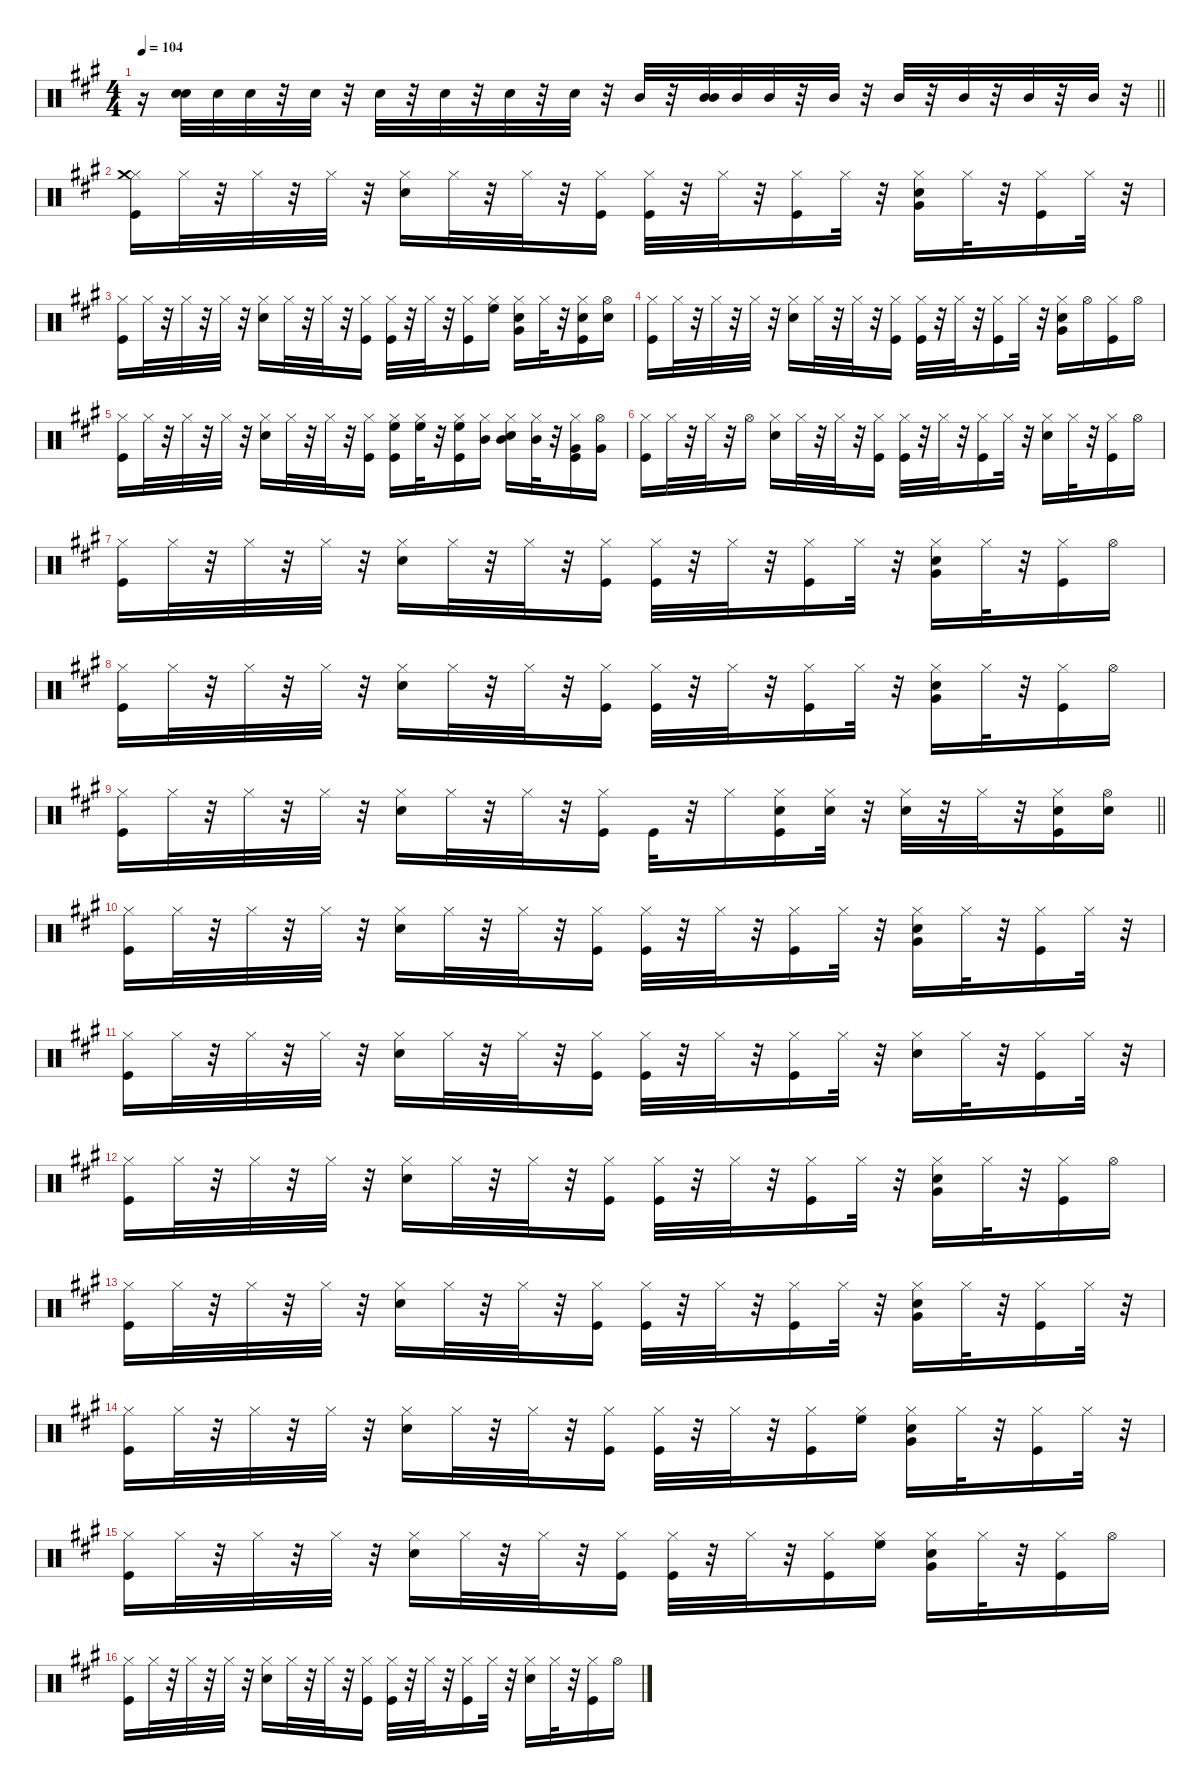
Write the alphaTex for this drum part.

\defaultSystemsLayout 4
\hideDynamics
\bracketExtendMode nobrackets
\singleTrackTrackNamePolicy hidden
\multiTrackTrackNamePolicy hidden
\otherSystemsTrackNameOrientation horizontal
\track ("Drums   " "drm.") {instrument percussion}
\staff {score}
\articulation defaults
\ts (4 4)
\tempo 104
\clef neutral
\barLineRight lightlight
\ks a
r.16{dy f beam Down} ("Snare (hit) 2"{acc forcenatural} "Snare (hit) 2"{acc forcenatural}).32{beam Down} "Snare (hit) 2"{acc forcenatural}.32{beam Down} "Snare (hit) 2"{acc forcenatural}.32{dy ff beam Down} r.32{beam Down} "Snare (hit) 2"{acc forcenatural}.32{dy f beam Down} r.32{beam Down} "Snare (hit) 2"{acc forcenatural}.32{dy mf beam Down} r.32{beam Down} "Snare (hit) 2"{acc forcenatural}.32{dy f beam Down} r.32{beam Down} "Snare (hit) 2"{acc forcenatural}.32{dy ff beam Down} r.32{beam Down} "Snare (hit) 2"{acc forcenatural}.32{beam Down} r.32{beam Down} "Mid Tom (hit)"{acc forcenatural}.32{dy mp beam Up} r.32{beam Up} ("Mid Tom (hit)"{acc forcenatural} "Mid Tom (hit)"{acc forcenatural}).32{dy f beam Up} "Mid Tom (hit)"{acc forcenatural}.32{beam Up} "Mid Tom (hit)"{acc forcenatural}.32{dy ff beam Up} r.32{beam Up} "Mid Tom (hit)"{acc forcenatural}.32{dy f beam Up} r.32{beam Up} "Mid Tom (hit)"{acc forcenatural}.32{dy mf beam Up} r.32{beam Up} "Mid Tom (hit)"{acc forcenatural}.32{dy f beam Up} r.32{beam Up} "Mid Tom (hit)"{acc forcenatural}.32{dy ff beam Up} r.32{beam Up} "Mid Tom (hit)"{acc forcenatural}.32{beam Up} r.32{beam Up} |
("Kick (hit)"{acc forcenatural} "Hi-Hat (closed)"{acc forcenatural} "Crash medium (hit)"{acc forcenatural}).16{dy f beam Down} "Hi-Hat (closed)"{acc forcenatural}.32{dy mp beam Down} r.32{beam Down} "Hi-Hat (closed)"{acc forcenatural}.32{dy f beam Down} r.32{beam Down} "Hi-Hat (closed)"{acc forcenatural}.32{beam Down} r.32{beam Down} ("Snare (hit) 2"{acc forcenatural} "Hi-Hat (closed)"{acc forcenatural}).16{dy fff beam Down} "Hi-Hat (closed)"{acc forcenatural}.32{dy mp beam Down} r.32{beam Down} "Hi-Hat (closed)"{acc forcenatural}.32{dy f beam Down} r.32{beam Down} ("Kick (hit)"{acc forcenatural} "Hi-Hat (closed)"{acc forcenatural}).16{dy mf beam Down} ("Kick (hit)"{acc forcenatural} "Hi-Hat (closed)"{acc forcenatural}).32{dy f beam Down} r.32{beam Down} "Hi-Hat (closed)"{acc forcenatural}.32{dy mp beam Down} r.32{beam Down} ("Kick (hit)"{acc forcenatural} "Hi-Hat (closed)"{acc forcenatural}).16{dy f beam Down} "Hi-Hat (closed)"{acc forcenatural}.32{beam Down} r.32{beam Down} ("Snare (hit) 2"{acc forcenatural} "Hi-Hat (closed)"{acc forcenatural} "Very Low Tom (hit)"{acc forcenatural}).16{dy fff beam Down} "Hi-Hat (closed)"{acc forcenatural}.32{dy mp beam Down} r.32{beam Down} ("Kick (hit)"{acc forcenatural} "Hi-Hat (closed)"{acc forcenatural}).16{dy f beam Down} "Hi-Hat (closed)"{acc forcenatural}.32{beam Down} r.32{beam Down} |
("Kick (hit)"{acc forcenatural} "Hi-Hat (closed)"{acc forcenatural}).16{beam Down} "Hi-Hat (closed)"{acc forcenatural}.32{dy mp beam Down} r.32{beam Down} "Hi-Hat (closed)"{acc forcenatural}.32{dy f beam Down} r.32{beam Down} "Hi-Hat (closed)"{acc forcenatural}.32{beam Down} r.32{beam Down} ("Snare (hit) 2"{acc forcenatural} "Hi-Hat (closed)"{acc forcenatural}).16{dy fff beam Down} "Hi-Hat (closed)"{acc forcenatural}.32{dy mp beam Down} r.32{beam Down} "Hi-Hat (closed)"{acc forcenatural}.32{dy f beam Down} r.32{beam Down} ("Kick (hit)"{acc forcenatural} "Hi-Hat (closed)"{acc forcenatural}).16{dy mf beam Down} ("Kick (hit)"{acc forcenatural} "Hi-Hat (closed)"{acc forcenatural}).32{dy f beam Down} r.32{beam Down} "Hi-Hat (closed)"{acc forcenatural}.32{dy mp beam Down} r.32{beam Down} ("Kick (hit)"{acc forcenatural} "Hi-Hat (closed)"{acc forcenatural}).16{dy f beam Down} ("Hi-Hat (closed)"{acc forcenatural} "High Floor Tom (hit)"{acc forcenatural}).16{beam Down} ("Snare (hit) 2"{acc forcenatural} "Hi-Hat (closed)"{acc forcenatural} "Very Low Tom (hit)"{acc forcenatural}).16{dy fff beam Down} "Hi-Hat (closed)"{acc forcenatural}.32{dy mp beam Down} r.32{beam Down} ("Kick (hit)"{acc forcenatural} "Snare (hit) 2"{acc forcenatural} "Hi-Hat (closed)"{acc forcenatural}).16{dy f beam Down} ("Snare (hit) 2"{acc forcenatural} "Hi-Hat (open)"{acc forcenatural}).16{beam Down} |
("Kick (hit)"{acc forcenatural} "Hi-Hat (closed)"{acc forcenatural}).16{beam Down} "Hi-Hat (closed)"{acc forcenatural}.32{dy mp beam Down} r.32{beam Down} "Hi-Hat (closed)"{acc forcenatural}.32{dy f beam Down} r.32{beam Down} "Hi-Hat (closed)"{acc forcenatural}.32{beam Down} r.32{beam Down} ("Snare (hit) 2"{acc forcenatural} "Hi-Hat (closed)"{acc forcenatural}).16{dy fff beam Down} "Hi-Hat (closed)"{acc forcenatural}.32{dy mp beam Down} r.32{beam Down} "Hi-Hat (closed)"{acc forcenatural}.32{dy f beam Down} r.32{beam Down} ("Kick (hit)"{acc forcenatural} "Hi-Hat (closed)"{acc forcenatural}).16{dy mf beam Down} ("Kick (hit)"{acc forcenatural} "Hi-Hat (closed)"{acc forcenatural}).32{dy f beam Down} r.32{beam Down} "Hi-Hat (closed)"{acc forcenatural}.32{dy mp beam Down} r.32{beam Down} ("Kick (hit)"{acc forcenatural} "Hi-Hat (closed)"{acc forcenatural}).16{dy f beam Down} "Hi-Hat (closed)"{acc forcenatural}.32{beam Down} r.32{beam Down} ("Snare (hit) 2"{acc forcenatural} "Hi-Hat (closed)"{acc forcenatural} "Very Low Tom (hit)"{acc forcenatural}).16{dy fff beam Down} "Hi-Hat (open)"{acc forcenatural}.16{dy mp beam Down} ("Kick (hit)"{acc forcenatural} "Hi-Hat (closed)"{acc forcenatural}).16{dy f beam Down} "Hi-Hat (open)"{acc forcenatural}.16{beam Down} |
("Kick (hit)"{acc forcenatural} "Hi-Hat (closed)"{acc forcenatural}).16{beam Down} "Hi-Hat (closed)"{acc forcenatural}.32{dy mp beam Down} r.32{beam Down} "Hi-Hat (closed)"{acc forcenatural}.32{dy f beam Down} r.32{beam Down} "Hi-Hat (closed)"{acc forcenatural}.32{beam Down} r.32{beam Down} ("Snare (hit) 2"{acc forcenatural} "Hi-Hat (closed)"{acc forcenatural}).16{dy fff beam Down} "Hi-Hat (closed)"{acc forcenatural}.32{dy mp beam Down} r.32{beam Down} "Hi-Hat (closed)"{acc forcenatural}.32{dy f beam Down} r.32{beam Down} ("Kick (hit)"{acc forcenatural} "Hi-Hat (closed)"{acc forcenatural}).16{dy mf beam Down} ("Kick (hit)"{acc forcenatural} "Hi-Hat (closed)"{acc forcenatural} "High Floor Tom (hit)"{acc forcenatural}).16{dy f beam Down} ("Hi-Hat (closed)"{acc forcenatural} "High Floor Tom (hit)"{acc forcenatural}).32{dy mp beam Down} r.32{beam Down} ("Kick (hit)"{acc forcenatural} "Hi-Hat (closed)"{acc forcenatural} "High Floor Tom (hit)"{acc forcenatural}).16{dy f beam Down} ("Hi-Hat (closed)"{acc forcenatural} "Mid Tom (hit)"{acc forcenatural}).16{beam Down} ("Snare (hit) 2"{acc forcenatural} "Hi-Hat (closed)"{acc forcenatural} "Mid Tom (hit)"{acc forcenatural}).16{dy fff beam Down} ("Hi-Hat (closed)"{acc forcenatural} "Mid Tom (hit)"{acc forcenatural}).32{dy mp beam Down} r.32{beam Down} ("Kick (hit)"{acc forcenatural} "Hi-Hat (closed)"{acc forcenatural} "Very Low Tom (hit)"{acc forcenatural}).16{dy f beam Down} ("Very Low Tom (hit)"{acc forcenatural} "Hi-Hat (open)"{acc forcenatural}).16{beam Down} |
("Kick (hit)"{acc forcenatural} "Hi-Hat (closed)"{acc forcenatural}).16{beam Down} "Hi-Hat (closed)"{acc forcenatural}.32{dy mp beam Down} r.32{beam Down} "Hi-Hat (closed)"{acc forcenatural}.32{dy f beam Down} r.32{beam Down} "Hi-Hat (open)"{acc forcenatural}.16{beam Down} ("Snare (hit) 2"{acc forcenatural} "Hi-Hat (closed)"{acc forcenatural}).16{dy fff beam Down} "Hi-Hat (closed)"{acc forcenatural}.32{dy mp beam Down} r.32{beam Down} "Hi-Hat (closed)"{acc forcenatural}.32{dy f beam Down} r.32{beam Down} ("Kick (hit)"{acc forcenatural} "Hi-Hat (closed)"{acc forcenatural}).16{dy mf beam Down} ("Kick (hit)"{acc forcenatural} "Hi-Hat (closed)"{acc forcenatural}).32{dy f beam Down} r.32{beam Down} "Hi-Hat (closed)"{acc forcenatural}.32{dy mp beam Down} r.32{beam Down} ("Kick (hit)"{acc forcenatural} "Hi-Hat (closed)"{acc forcenatural}).16{dy f beam Down} "Hi-Hat (closed)"{acc forcenatural}.32{beam Down} r.32{beam Down} ("Snare (hit) 2"{acc forcenatural} "Hi-Hat (closed)"{acc forcenatural}).16{dy fff beam Down} "Hi-Hat (closed)"{acc forcenatural}.32{dy mp beam Down} r.32{beam Down} ("Kick (hit)"{acc forcenatural} "Hi-Hat (closed)"{acc forcenatural}).16{dy f beam Down} "Hi-Hat (open)"{acc forcenatural}.16{beam Down} |
("Kick (hit)"{acc forcenatural} "Hi-Hat (closed)"{acc forcenatural}).16{beam Down} "Hi-Hat (closed)"{acc forcenatural}.32{dy mp beam Down} r.32{beam Down} "Hi-Hat (closed)"{acc forcenatural}.32{dy f beam Down} r.32{beam Down} "Hi-Hat (closed)"{acc forcenatural}.32{beam Down} r.32{beam Down} ("Snare (hit) 2"{acc forcenatural} "Hi-Hat (closed)"{acc forcenatural}).16{dy fff beam Down} "Hi-Hat (closed)"{acc forcenatural}.32{dy mp beam Down} r.32{beam Down} "Hi-Hat (closed)"{acc forcenatural}.32{dy f beam Down} r.32{beam Down} ("Kick (hit)"{acc forcenatural} "Hi-Hat (closed)"{acc forcenatural}).16{dy mf beam Down} ("Kick (hit)"{acc forcenatural} "Hi-Hat (closed)"{acc forcenatural}).32{dy f beam Down} r.32{beam Down} "Hi-Hat (closed)"{acc forcenatural}.32{dy mp beam Down} r.32{beam Down} ("Kick (hit)"{acc forcenatural} "Hi-Hat (closed)"{acc forcenatural}).16{dy f beam Down} "Hi-Hat (closed)"{acc forcenatural}.32{beam Down} r.32{beam Down} ("Snare (hit) 2"{acc forcenatural} "Hi-Hat (closed)"{acc forcenatural} "Very Low Tom (hit)"{acc forcenatural}).16{dy fff beam Down} "Hi-Hat (closed)"{acc forcenatural}.32{dy mp beam Down} r.32{beam Down} ("Kick (hit)"{acc forcenatural} "Hi-Hat (closed)"{acc forcenatural}).16{dy f beam Down} "Hi-Hat (open)"{acc forcenatural}.16{beam Down} |
("Kick (hit)"{acc forcenatural} "Hi-Hat (closed)"{acc forcenatural}).16{beam Down} "Hi-Hat (closed)"{acc forcenatural}.32{dy mp beam Down} r.32{beam Down} "Hi-Hat (closed)"{acc forcenatural}.32{dy f beam Down} r.32{beam Down} "Hi-Hat (closed)"{acc forcenatural}.32{beam Down} r.32{beam Down} ("Snare (hit) 2"{acc forcenatural} "Hi-Hat (closed)"{acc forcenatural}).16{dy fff beam Down} "Hi-Hat (closed)"{acc forcenatural}.32{dy mp beam Down} r.32{beam Down} "Hi-Hat (closed)"{acc forcenatural}.32{dy f beam Down} r.32{beam Down} ("Kick (hit)"{acc forcenatural} "Hi-Hat (closed)"{acc forcenatural}).16{dy mf beam Down} ("Kick (hit)"{acc forcenatural} "Hi-Hat (closed)"{acc forcenatural}).32{dy f beam Down} r.32{beam Down} "Hi-Hat (closed)"{acc forcenatural}.32{dy mp beam Down} r.32{beam Down} ("Kick (hit)"{acc forcenatural} "Hi-Hat (closed)"{acc forcenatural}).16{dy f beam Down} "Hi-Hat (closed)"{acc forcenatural}.32{beam Down} r.32{beam Down} ("Snare (hit) 2"{acc forcenatural} "Hi-Hat (closed)"{acc forcenatural} "Very Low Tom (hit)"{acc forcenatural}).16{dy fff beam Down} "Hi-Hat (closed)"{acc forcenatural}.32{dy mp beam Down} r.32{beam Down} ("Kick (hit)"{acc forcenatural} "Hi-Hat (closed)"{acc forcenatural}).16{dy f beam Down} "Hi-Hat (open)"{acc forcenatural}.16{beam Down} |
\barLineRight lightlight
("Kick (hit)"{acc forcenatural} "Hi-Hat (closed)"{acc forcenatural}).16{beam Down} "Hi-Hat (closed)"{acc forcenatural}.32{dy mp beam Down} r.32{beam Down} "Hi-Hat (closed)"{acc forcenatural}.32{dy f beam Down} r.32{beam Down} "Hi-Hat (closed)"{acc forcenatural}.32{beam Down} r.32{beam Down} ("Snare (hit) 2"{acc forcenatural} "Hi-Hat (closed)"{acc forcenatural}).16{dy fff beam Down} "Hi-Hat (closed)"{acc forcenatural}.32{dy mp beam Down} r.32{beam Down} "Hi-Hat (closed)"{acc forcenatural}.32{dy f beam Down} r.32{beam Down} ("Kick (hit)"{acc forcenatural} "Hi-Hat (closed)"{acc forcenatural}).16{dy mf beam Down} "Kick (hit)"{acc forcenatural}.32{dy f beam Down} r.32{beam Down} "Hi-Hat (closed)"{acc forcenatural}.16{dy mp beam Down} ("Kick (hit)"{acc forcenatural} "Snare (hit) 2"{acc forcenatural} "Hi-Hat (closed)"{acc forcenatural}).16{dy f beam Down} ("Snare (hit) 2"{acc forcenatural} "Hi-Hat (closed)"{acc forcenatural}).32{beam Down} r.32{beam Down} ("Snare (hit) 2"{acc forcenatural} "Hi-Hat (closed)"{acc forcenatural}).32{dy fff beam Down} r.32{beam Down} "Hi-Hat (closed)"{acc forcenatural}.32{dy mp beam Down} r.32{beam Down} ("Kick (hit)"{acc forcenatural} "Snare (hit) 2"{acc forcenatural} "Hi-Hat (closed)"{acc forcenatural}).16{dy f beam Down} ("Snare (hit) 2"{acc forcenatural} "Hi-Hat (open)"{acc forcenatural}).16{dy ff beam Down} |
("Kick (hit)"{acc forcenatural} "Hi-Hat (closed)"{acc forcenatural}).16{dy f beam Down} "Hi-Hat (closed)"{acc forcenatural}.32{dy mp beam Down} r.32{beam Down} "Hi-Hat (closed)"{acc forcenatural}.32{dy f beam Down} r.32{beam Down} "Hi-Hat (closed)"{acc forcenatural}.32{beam Down} r.32{beam Down} ("Snare (hit) 2"{acc forcenatural} "Hi-Hat (closed)"{acc forcenatural}).16{dy fff beam Down} "Hi-Hat (closed)"{acc forcenatural}.32{dy mp beam Down} r.32{beam Down} "Hi-Hat (closed)"{acc forcenatural}.32{dy f beam Down} r.32{beam Down} ("Kick (hit)"{acc forcenatural} "Hi-Hat (closed)"{acc forcenatural}).16{dy mf beam Down} ("Kick (hit)"{acc forcenatural} "Hi-Hat (closed)"{acc forcenatural}).32{dy f beam Down} r.32{beam Down} "Hi-Hat (closed)"{acc forcenatural}.32{dy mp beam Down} r.32{beam Down} ("Kick (hit)"{acc forcenatural} "Hi-Hat (closed)"{acc forcenatural}).16{dy f beam Down} "Hi-Hat (closed)"{acc forcenatural}.32{beam Down} r.32{beam Down} ("Snare (hit) 2"{acc forcenatural} "Hi-Hat (closed)"{acc forcenatural} "Very Low Tom (hit)"{acc forcenatural}).16{dy fff beam Down} "Hi-Hat (closed)"{acc forcenatural}.32{dy mp beam Down} r.32{beam Down} ("Kick (hit)"{acc forcenatural} "Hi-Hat (closed)"{acc forcenatural}).16{dy f beam Down} "Hi-Hat (closed)"{acc forcenatural}.32{beam Down} r.32{beam Down} |
("Kick (hit)"{acc forcenatural} "Hi-Hat (closed)"{acc forcenatural}).16{beam Down} "Hi-Hat (closed)"{acc forcenatural}.32{dy mp beam Down} r.32{beam Down} "Hi-Hat (closed)"{acc forcenatural}.32{dy f beam Down} r.32{beam Down} "Hi-Hat (closed)"{acc forcenatural}.32{beam Down} r.32{beam Down} ("Snare (hit) 2"{acc forcenatural} "Hi-Hat (closed)"{acc forcenatural}).16{dy fff beam Down} "Hi-Hat (closed)"{acc forcenatural}.32{dy mp beam Down} r.32{beam Down} "Hi-Hat (closed)"{acc forcenatural}.32{dy f beam Down} r.32{beam Down} ("Kick (hit)"{acc forcenatural} "Hi-Hat (closed)"{acc forcenatural}).16{dy mf beam Down} ("Kick (hit)"{acc forcenatural} "Hi-Hat (closed)"{acc forcenatural}).32{dy f beam Down} r.32{beam Down} "Hi-Hat (closed)"{acc forcenatural}.32{dy mp beam Down} r.32{beam Down} ("Kick (hit)"{acc forcenatural} "Hi-Hat (closed)"{acc forcenatural}).16{dy f beam Down} "Hi-Hat (closed)"{acc forcenatural}.32{beam Down} r.32{beam Down} ("Snare (hit) 2"{acc forcenatural} "Hi-Hat (closed)"{acc forcenatural}).16{dy fff beam Down} "Hi-Hat (closed)"{acc forcenatural}.32{dy mp beam Down} r.32{beam Down} ("Kick (hit)"{acc forcenatural} "Hi-Hat (closed)"{acc forcenatural}).16{dy f beam Down} "Hi-Hat (closed)"{acc forcenatural}.32{beam Down} r.32{beam Down} |
("Kick (hit)"{acc forcenatural} "Hi-Hat (closed)"{acc forcenatural}).16{beam Down} "Hi-Hat (closed)"{acc forcenatural}.32{dy mp beam Down} r.32{beam Down} "Hi-Hat (closed)"{acc forcenatural}.32{dy f beam Down} r.32{beam Down} "Hi-Hat (closed)"{acc forcenatural}.32{beam Down} r.32{beam Down} ("Snare (hit) 2"{acc forcenatural} "Hi-Hat (closed)"{acc forcenatural}).16{dy fff beam Down} "Hi-Hat (closed)"{acc forcenatural}.32{dy mp beam Down} r.32{beam Down} "Hi-Hat (closed)"{acc forcenatural}.32{dy f beam Down} r.32{beam Down} ("Kick (hit)"{acc forcenatural} "Hi-Hat (closed)"{acc forcenatural}).16{dy mf beam Down} ("Kick (hit)"{acc forcenatural} "Hi-Hat (closed)"{acc forcenatural}).32{dy f beam Down} r.32{beam Down} "Hi-Hat (closed)"{acc forcenatural}.32{dy mp beam Down} r.32{beam Down} ("Kick (hit)"{acc forcenatural} "Hi-Hat (closed)"{acc forcenatural}).16{dy f beam Down} "Hi-Hat (closed)"{acc forcenatural}.32{beam Down} r.32{beam Down} ("Snare (hit) 2"{acc forcenatural} "Hi-Hat (closed)"{acc forcenatural} "Very Low Tom (hit)"{acc forcenatural}).16{dy fff beam Down} "Hi-Hat (closed)"{acc forcenatural}.32{dy mp beam Down} r.32{beam Down} ("Kick (hit)"{acc forcenatural} "Hi-Hat (closed)"{acc forcenatural}).16{dy f beam Down} "Hi-Hat (open)"{acc forcenatural}.16{beam Down} |
("Kick (hit)"{acc forcenatural} "Hi-Hat (closed)"{acc forcenatural}).16{beam Down} "Hi-Hat (closed)"{acc forcenatural}.32{dy mp beam Down} r.32{beam Down} "Hi-Hat (closed)"{acc forcenatural}.32{dy f beam Down} r.32{beam Down} "Hi-Hat (closed)"{acc forcenatural}.32{beam Down} r.32{beam Down} ("Snare (hit) 2"{acc forcenatural} "Hi-Hat (closed)"{acc forcenatural}).16{dy fff beam Down} "Hi-Hat (closed)"{acc forcenatural}.32{dy mp beam Down} r.32{beam Down} "Hi-Hat (closed)"{acc forcenatural}.32{dy f beam Down} r.32{beam Down} ("Kick (hit)"{acc forcenatural} "Hi-Hat (closed)"{acc forcenatural}).16{dy mf beam Down} ("Kick (hit)"{acc forcenatural} "Hi-Hat (closed)"{acc forcenatural}).32{dy f beam Down} r.32{beam Down} "Hi-Hat (closed)"{acc forcenatural}.32{dy mp beam Down} r.32{beam Down} ("Kick (hit)"{acc forcenatural} "Hi-Hat (closed)"{acc forcenatural}).16{dy f beam Down} "Hi-Hat (closed)"{acc forcenatural}.32{beam Down} r.32{beam Down} ("Snare (hit) 2"{acc forcenatural} "Hi-Hat (closed)"{acc forcenatural} "Very Low Tom (hit)"{acc forcenatural}).16{dy fff beam Down} "Hi-Hat (closed)"{acc forcenatural}.32{dy mp beam Down} r.32{beam Down} ("Kick (hit)"{acc forcenatural} "Hi-Hat (closed)"{acc forcenatural}).16{dy f beam Down} "Hi-Hat (closed)"{acc forcenatural}.32{beam Down} r.32{beam Down} |
("Kick (hit)"{acc forcenatural} "Hi-Hat (closed)"{acc forcenatural}).16{beam Down} "Hi-Hat (closed)"{acc forcenatural}.32{dy mp beam Down} r.32{beam Down} "Hi-Hat (closed)"{acc forcenatural}.32{dy f beam Down} r.32{beam Down} "Hi-Hat (closed)"{acc forcenatural}.32{beam Down} r.32{beam Down} ("Snare (hit) 2"{acc forcenatural} "Hi-Hat (closed)"{acc forcenatural}).16{dy fff beam Down} "Hi-Hat (closed)"{acc forcenatural}.32{dy mp beam Down} r.32{beam Down} "Hi-Hat (closed)"{acc forcenatural}.32{dy f beam Down} r.32{beam Down} ("Kick (hit)"{acc forcenatural} "Hi-Hat (closed)"{acc forcenatural}).16{dy mf beam Down} ("Kick (hit)"{acc forcenatural} "Hi-Hat (closed)"{acc forcenatural}).32{dy f beam Down} r.32{beam Down} "Hi-Hat (closed)"{acc forcenatural}.32{dy mp beam Down} r.32{beam Down} ("Kick (hit)"{acc forcenatural} "Hi-Hat (closed)"{acc forcenatural}).16{dy f beam Down} ("Hi-Hat (closed)"{acc forcenatural} "High Floor Tom (hit)"{acc forcenatural}).16{beam Down} ("Snare (hit) 2"{acc forcenatural} "Hi-Hat (closed)"{acc forcenatural} "Very Low Tom (hit)"{acc forcenatural}).16{dy fff beam Down} "Hi-Hat (closed)"{acc forcenatural}.32{dy mp beam Down} r.32{beam Down} ("Kick (hit)"{acc forcenatural} "Hi-Hat (closed)"{acc forcenatural}).16{dy f beam Down} "Hi-Hat (closed)"{acc forcenatural}.32{beam Down} r.32{beam Down} |
("Kick (hit)"{acc forcenatural} "Hi-Hat (closed)"{acc forcenatural}).16{beam Down} "Hi-Hat (closed)"{acc forcenatural}.32{dy mp beam Down} r.32{beam Down} "Hi-Hat (closed)"{acc forcenatural}.32{dy f beam Down} r.32{beam Down} "Hi-Hat (closed)"{acc forcenatural}.32{beam Down} r.32{beam Down} ("Snare (hit) 2"{acc forcenatural} "Hi-Hat (closed)"{acc forcenatural}).16{dy fff beam Down} "Hi-Hat (closed)"{acc forcenatural}.32{dy mp beam Down} r.32{beam Down} "Hi-Hat (closed)"{acc forcenatural}.32{dy f beam Down} r.32{beam Down} ("Kick (hit)"{acc forcenatural} "Hi-Hat (closed)"{acc forcenatural}).16{dy mf beam Down} ("Kick (hit)"{acc forcenatural} "Hi-Hat (closed)"{acc forcenatural}).32{dy f beam Down} r.32{beam Down} "Hi-Hat (closed)"{acc forcenatural}.32{dy mp beam Down} r.32{beam Down} ("Kick (hit)"{acc forcenatural} "Hi-Hat (closed)"{acc forcenatural}).16{dy f beam Down} ("Hi-Hat (closed)"{acc forcenatural} "High Floor Tom (hit)"{acc forcenatural}).16{beam Down} ("Snare (hit) 2"{acc forcenatural} "Hi-Hat (closed)"{acc forcenatural} "Very Low Tom (hit)"{acc forcenatural}).16{dy fff beam Down} "Hi-Hat (closed)"{acc forcenatural}.32{dy mp beam Down} r.32{beam Down} ("Kick (hit)"{acc forcenatural} "Hi-Hat (closed)"{acc forcenatural}).16{dy f beam Down} "Hi-Hat (open)"{acc forcenatural}.16{beam Down} |
("Kick (hit)"{acc forcenatural} "Hi-Hat (closed)"{acc forcenatural}).16{beam Down} "Hi-Hat (closed)"{acc forcenatural}.32{dy mp beam Down} r.32{beam Down} "Hi-Hat (closed)"{acc forcenatural}.32{dy f beam Down} r.32{beam Down} "Hi-Hat (closed)"{acc forcenatural}.32{beam Down} r.32{beam Down} ("Snare (hit) 2"{acc forcenatural} "Hi-Hat (closed)"{acc forcenatural}).16{dy fff beam Down} "Hi-Hat (closed)"{acc forcenatural}.32{dy mp beam Down} r.32{beam Down} "Hi-Hat (closed)"{acc forcenatural}.32{dy f beam Down} r.32{beam Down} ("Kick (hit)"{acc forcenatural} "Hi-Hat (closed)"{acc forcenatural}).16{dy mf beam Down} ("Kick (hit)"{acc forcenatural} "Hi-Hat (closed)"{acc forcenatural}).32{dy f beam Down} r.32{beam Down} "Hi-Hat (closed)"{acc forcenatural}.32{dy mp beam Down} r.32{beam Down} ("Kick (hit)"{acc forcenatural} "Hi-Hat (closed)"{acc forcenatural}).16{dy f beam Down} "Hi-Hat (closed)"{acc forcenatural}.32{beam Down} r.32{beam Down} ("Snare (hit) 2"{acc forcenatural} "Hi-Hat (closed)"{acc forcenatural}).16{dy fff beam Down} "Hi-Hat (closed)"{acc forcenatural}.32{dy mp beam Down} r.32{beam Down} ("Kick (hit)"{acc forcenatural} "Hi-Hat (closed)"{acc forcenatural}).16{dy f beam Down} "Hi-Hat (open)"{acc forcenatural}.16{beam Down}
